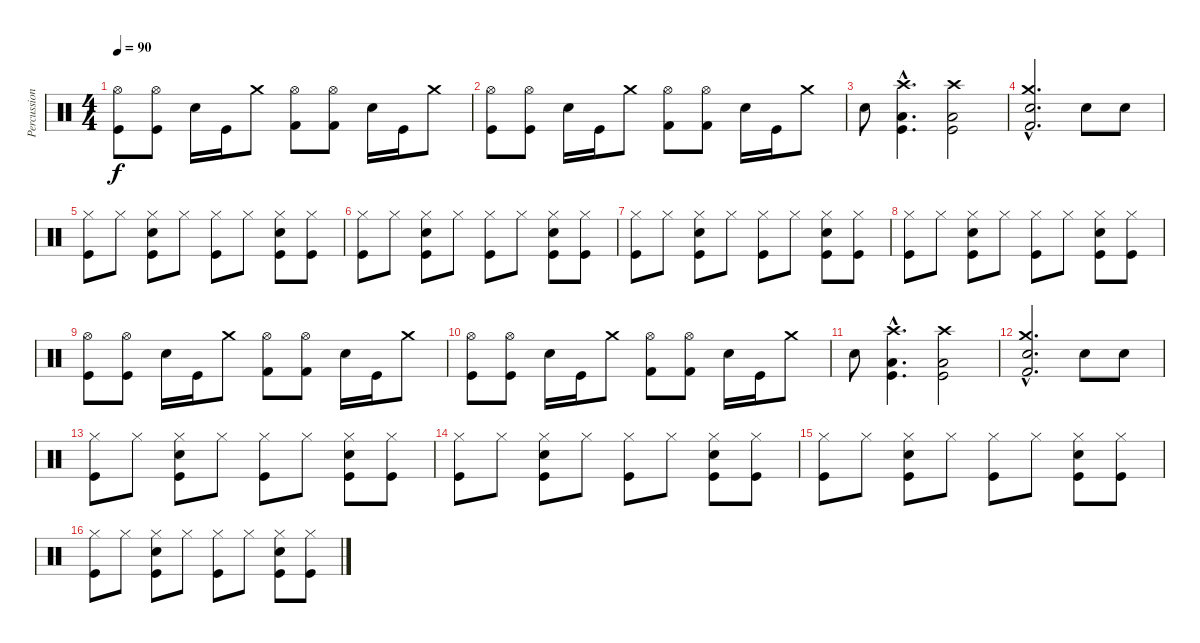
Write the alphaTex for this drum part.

\track ("Percussion" "Percussion") {instrument percussion}
\staff {score}
\articulation defaults
\ts (4 4)
\tempo 90
\clef neutral
\ks c
("Hi-Hat (open)" "Kick (hit)").8{dy f} ("Hi-Hat (open)" "Kick (hit)").8 "Electric Snare (hit)".16 "Kick (hit)".16 "Crash medium (hit)".8 ("Hi-Hat (open)" "Kick (hit) 2").8 ("Hi-Hat (open)" "Kick (hit) 2").8 "Electric Snare (hit)".16 "Kick (hit)".16 "Crash medium (hit)".8 |
("Hi-Hat (open)" "Kick (hit)").8 ("Hi-Hat (open)" "Kick (hit)").8 "Electric Snare (hit)".16 "Kick (hit)".16 "Crash medium (hit)".8 ("Hi-Hat (open)" "Kick (hit) 2").8 ("Hi-Hat (open)" "Kick (hit) 2").8 "Electric Snare (hit)".16 "Kick (hit)".16 "Crash medium (hit)".8 |
"Electric Snare (hit)".8 ("Low Tom (hit)"{hac} "Crash high (hit)"{hac} "Kick (hit)"{hac}).4{d} ("Low Tom (hit)" "Crash high (hit)" "Kick (hit)").2 |
("Crash medium (hit)"{hac} "Kick (hit) 2"{hac} "Electric Snare (hit)"{hac}).2{d} "Electric Snare (hit)".8 "Electric Snare (hit)".8 |
("Hi-Hat (closed)" "Kick (hit)").8 "Hi-Hat (closed)".8 ("Hi-Hat (closed)" "Electric Snare (hit)" "Kick (hit)").8 "Hi-Hat (closed)".8 ("Hi-Hat (closed)" "Kick (hit)").8 "Hi-Hat (closed)".8 ("Hi-Hat (closed)" "Electric Snare (hit)" "Kick (hit)").8 ("Hi-Hat (closed)" "Kick (hit)").8 |
("Hi-Hat (closed)" "Kick (hit)").8 "Hi-Hat (closed)".8 ("Hi-Hat (closed)" "Electric Snare (hit)" "Kick (hit)").8 "Hi-Hat (closed)".8 ("Hi-Hat (closed)" "Kick (hit)").8 "Hi-Hat (closed)".8 ("Hi-Hat (closed)" "Electric Snare (hit)" "Kick (hit)").8 ("Hi-Hat (closed)" "Kick (hit)").8 |
("Hi-Hat (closed)" "Kick (hit)").8 "Hi-Hat (closed)".8 ("Hi-Hat (closed)" "Electric Snare (hit)" "Kick (hit)").8 "Hi-Hat (closed)".8 ("Hi-Hat (closed)" "Kick (hit)").8 "Hi-Hat (closed)".8 ("Hi-Hat (closed)" "Electric Snare (hit)" "Kick (hit)").8 ("Hi-Hat (closed)" "Kick (hit)").8 |
("Hi-Hat (closed)" "Kick (hit)").8 "Hi-Hat (closed)".8 ("Hi-Hat (closed)" "Electric Snare (hit)" "Kick (hit)").8 "Hi-Hat (closed)".8 ("Hi-Hat (closed)" "Kick (hit)").8 "Hi-Hat (closed)".8 ("Hi-Hat (closed)" "Electric Snare (hit)" "Kick (hit)").8 ("Hi-Hat (closed)" "Kick (hit)").8 |
("Hi-Hat (open)" "Kick (hit)").8 ("Hi-Hat (open)" "Kick (hit)").8 "Electric Snare (hit)".16 "Kick (hit)".16 "Crash medium (hit)".8 ("Hi-Hat (open)" "Kick (hit) 2").8 ("Hi-Hat (open)" "Kick (hit) 2").8 "Electric Snare (hit)".16 "Kick (hit)".16 "Crash medium (hit)".8 |
("Hi-Hat (open)" "Kick (hit)").8 ("Hi-Hat (open)" "Kick (hit)").8 "Electric Snare (hit)".16 "Kick (hit)".16 "Crash medium (hit)".8 ("Hi-Hat (open)" "Kick (hit) 2").8 ("Hi-Hat (open)" "Kick (hit) 2").8 "Electric Snare (hit)".16 "Kick (hit)".16 "Crash medium (hit)".8 |
"Electric Snare (hit)".8 ("Low Tom (hit)"{hac} "Crash high (hit)"{hac} "Kick (hit)"{hac}).4{d} ("Low Tom (hit)" "Crash high (hit)" "Kick (hit)").2 |
("Crash medium (hit)"{hac} "Kick (hit) 2"{hac} "Electric Snare (hit)"{hac}).2{d} "Electric Snare (hit)".8 "Electric Snare (hit)".8 |
("Hi-Hat (closed)" "Kick (hit)").8 "Hi-Hat (closed)".8 ("Hi-Hat (closed)" "Electric Snare (hit)" "Kick (hit)").8 "Hi-Hat (closed)".8 ("Hi-Hat (closed)" "Kick (hit)").8 "Hi-Hat (closed)".8 ("Hi-Hat (closed)" "Electric Snare (hit)" "Kick (hit)").8 ("Hi-Hat (closed)" "Kick (hit)").8 |
("Hi-Hat (closed)" "Kick (hit)").8 "Hi-Hat (closed)".8 ("Hi-Hat (closed)" "Electric Snare (hit)" "Kick (hit)").8 "Hi-Hat (closed)".8 ("Hi-Hat (closed)" "Kick (hit)").8 "Hi-Hat (closed)".8 ("Hi-Hat (closed)" "Electric Snare (hit)" "Kick (hit)").8 ("Hi-Hat (closed)" "Kick (hit)").8 |
("Hi-Hat (closed)" "Kick (hit)").8 "Hi-Hat (closed)".8 ("Hi-Hat (closed)" "Electric Snare (hit)" "Kick (hit)").8 "Hi-Hat (closed)".8 ("Hi-Hat (closed)" "Kick (hit)").8 "Hi-Hat (closed)".8 ("Hi-Hat (closed)" "Electric Snare (hit)" "Kick (hit)").8 ("Hi-Hat (closed)" "Kick (hit)").8 |
("Hi-Hat (closed)" "Kick (hit)").8 "Hi-Hat (closed)".8 ("Hi-Hat (closed)" "Electric Snare (hit)" "Kick (hit)").8 "Hi-Hat (closed)".8 ("Hi-Hat (closed)" "Kick (hit)").8 "Hi-Hat (closed)".8 ("Hi-Hat (closed)" "Electric Snare (hit)" "Kick (hit)").8 ("Hi-Hat (closed)" "Kick (hit)").8
